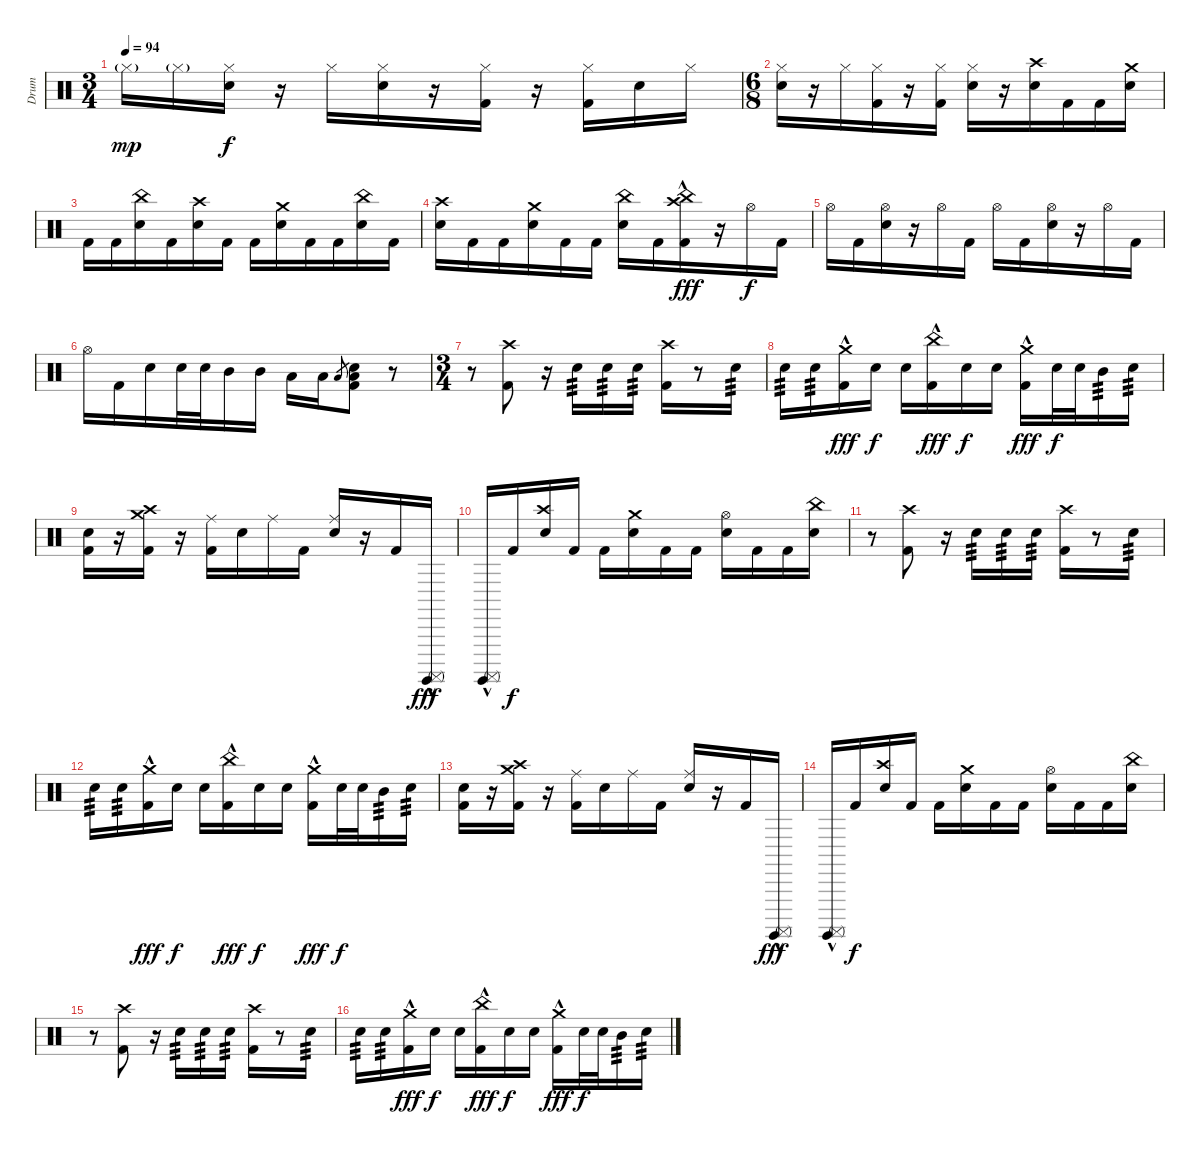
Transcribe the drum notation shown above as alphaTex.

\track ("Drum" "Drum") {instrument percussion}
\staff {score}
\articulation defaults
\ts (3 4)
\tempo 94
\clef neutral
\ks c "Hi-Hat (closed)"{g}.16{dy mp} "Hi-Hat (closed)"{g}.16
("Hi-Hat (closed)" "Electric Snare (hit)").16{dy f} r.16 "Hi-Hat (closed)".16 ("Hi-Hat (closed)" "Electric Snare (hit)").16 r.16 ("Hi-Hat (closed)" "Kick (hit) 2").16 r.16 ("Hi-Hat (closed)" "Kick (hit) 2").16 "Electric Snare (hit)".16 "Hi-Hat (closed)".16 |
\ts (6 8)
("Hi-Hat (closed)" "Electric Snare (hit)").16 r.16 "Hi-Hat (closed)".16 ("Hi-Hat (closed)" "Kick (hit) 2").16 r.16 ("Hi-Hat (closed)" "Kick (hit) 2").16 ("Hi-Hat (closed)" "Electric Snare (hit)").16 r.16 ("Crash high (hit)" "Electric Snare (hit)").16 "Kick (hit) 2".16 "Kick (hit) 2".16 ("Crash medium (hit)" "Electric Snare (hit)").16 |
"Kick (hit) 2".16 "Kick (hit) 2".16 ("China (hit)" "Electric Snare (hit)").16 "Kick (hit) 2".16 ("Crash high (hit)" "Electric Snare (hit)").16 "Kick (hit) 2".16 "Kick (hit) 2".16 ("Crash medium (hit)" "Electric Snare (hit)").16 "Kick (hit) 2".16 "Kick (hit) 2".16 ("China (hit)" "Electric Snare (hit)").16 "Kick (hit) 2".16 |
("Crash high (hit)" "Electric Snare (hit)").16 "Kick (hit) 2".16 "Kick (hit) 2".16 ("Crash medium (hit)" "Electric Snare (hit)").16 "Kick (hit) 2".16 "Kick (hit) 2".16 ("China (hit)" "Electric Snare (hit)").16 "Kick (hit) 2".16 ("Crash high (hit)"{hac} "China (hit)"{hac} "Kick (hit) 2"{hac}).16{dy fff} r.16 "Hi-Hat (open)".16{dy f} "Kick (hit) 2".16 |
"Hi-Hat (open)".16 "Kick (hit) 2".16 ("Hi-Hat (open)" "Electric Snare (hit)").16 r.16 "Hi-Hat (open)".16 "Kick (hit) 2".16 "Hi-Hat (open)".16 "Kick (hit) 2".16 ("Hi-Hat (open)" "Electric Snare (hit)").16 r.16 "Hi-Hat (open)".16 "Kick (hit) 2".16 |
"Hi-Hat (open)".16 "Kick (hit) 2".16 "Electric Snare (hit)".16 "Electric Snare (hit)".32 "Electric Snare (hit)".32 "Mid Tom (hit)".16 "Mid Tom (hit)".16 "Low Tom (hit)".16 "Low Tom (hit)".16 "Low Tom (hit)"{sl}.8{gr} ("Electric Snare (hit)" "Low Tom (hit)" "Kick (hit) 2").8 r.8 |
\ts (3 4)
r.8 ("Crash high (hit)" "Kick (hit) 2").8 r.16 "Electric Snare (hit)".16{tp 3} "Electric Snare (hit)".16{tp 3} "Electric Snare (hit)".16{tp 3} ("Crash high (hit)" "Kick (hit) 2").16 r.8 "Electric Snare (hit)".16{tp 3} |
"Electric Snare (hit)".16{tp 3} "Electric Snare (hit)".16{tp 3} ("Crash medium (hit)"{hac} "Kick (hit) 2").16{dy fff} "Electric Snare (hit)".16{dy f} "Electric Snare (hit)".16 ("China (hit)"{hac} "Kick (hit) 2").16{dy fff} "Electric Snare (hit)".16{dy f} "Electric Snare (hit)".16 ("Crash medium (hit)"{hac} "Kick (hit) 2").16{dy fff} "Electric Snare (hit)".32{dy f} "Electric Snare (hit)".32 "Mid Tom (hit)".16{tp 3} "Electric Snare (hit)".16{tp 3} |
("Electric Snare (hit)" "Kick (hit) 2").16 r.16 ("Crash medium (hit)" "Crash high (hit)" "Kick (hit) 2").16 r.16 ("Ride (middle)" "Kick (hit) 2").16 "Electric Snare (hit)".16 "Ride (middle)".16 "Kick (hit) 2".16 ("Ride (middle)" "Electric Snare (hit)").16 r.16 "Kick (hit) 2".16 ("Surdo (mute)"{hac} "Surdo (hit)"{hac}).16{dy fff} |
("Surdo (mute)"{hac} "Surdo (hit)"{hac}).16 "Kick (hit) 2".16{dy f} ("Crash high (hit)" "Electric Snare (hit)").16 "Kick (hit) 2".16 "Kick (hit) 2".16 ("Crash medium (hit)" "Electric Snare (hit)").16 "Kick (hit) 2".16 "Kick (hit) 2".16 ("Hi-Hat (open)" "Electric Snare (hit)").16 "Kick (hit) 2".16 "Kick (hit) 2".16 ("China (hit)" "Electric Snare (hit)").16 |
r.8 ("Crash high (hit)" "Kick (hit) 2").8 r.16 "Electric Snare (hit)".16{tp 3} "Electric Snare (hit)".16{tp 3} "Electric Snare (hit)".16{tp 3} ("Crash high (hit)" "Kick (hit) 2").16 r.8 "Electric Snare (hit)".16{tp 3} |
"Electric Snare (hit)".16{tp 3} "Electric Snare (hit)".16{tp 3} ("Crash medium (hit)"{hac} "Kick (hit) 2").16{dy fff} "Electric Snare (hit)".16{dy f} "Electric Snare (hit)".16 ("China (hit)"{hac} "Kick (hit) 2").16{dy fff} "Electric Snare (hit)".16{dy f} "Electric Snare (hit)".16 ("Crash medium (hit)"{hac} "Kick (hit) 2").16{dy fff} "Electric Snare (hit)".32{dy f} "Electric Snare (hit)".32 "Mid Tom (hit)".16{tp 3} "Electric Snare (hit)".16{tp 3} |
("Electric Snare (hit)" "Kick (hit) 2").16 r.16 ("Crash medium (hit)" "Crash high (hit)" "Kick (hit) 2").16 r.16 ("Ride (middle)" "Kick (hit) 2").16 "Electric Snare (hit)".16 "Ride (middle)".16 "Kick (hit) 2".16 ("Ride (middle)" "Electric Snare (hit)").16 r.16 "Kick (hit) 2".16 ("Surdo (mute)"{hac} "Surdo (hit)"{hac}).16{dy fff} |
("Surdo (mute)"{hac} "Surdo (hit)"{hac}).16 "Kick (hit) 2".16{dy f} ("Crash high (hit)" "Electric Snare (hit)").16 "Kick (hit) 2".16 "Kick (hit) 2".16 ("Crash medium (hit)" "Electric Snare (hit)").16 "Kick (hit) 2".16 "Kick (hit) 2".16 ("Hi-Hat (open)" "Electric Snare (hit)").16 "Kick (hit) 2".16 "Kick (hit) 2".16 ("China (hit)" "Electric Snare (hit)").16 |
r.8 ("Crash high (hit)" "Kick (hit) 2").8 r.16 "Electric Snare (hit)".16{tp 3} "Electric Snare (hit)".16{tp 3} "Electric Snare (hit)".16{tp 3} ("Crash high (hit)" "Kick (hit) 2").16 r.8 "Electric Snare (hit)".16{tp 3} |
"Electric Snare (hit)".16{tp 3} "Electric Snare (hit)".16{tp 3} ("Crash medium (hit)"{hac} "Kick (hit) 2").16{dy fff} "Electric Snare (hit)".16{dy f} "Electric Snare (hit)".16 ("China (hit)"{hac} "Kick (hit) 2").16{dy fff} "Electric Snare (hit)".16{dy f} "Electric Snare (hit)".16 ("Crash medium (hit)"{hac} "Kick (hit) 2").16{dy fff} "Electric Snare (hit)".32{dy f} "Electric Snare (hit)".32 "Mid Tom (hit)".16{tp 3} "Electric Snare (hit)".16{tp 3}
